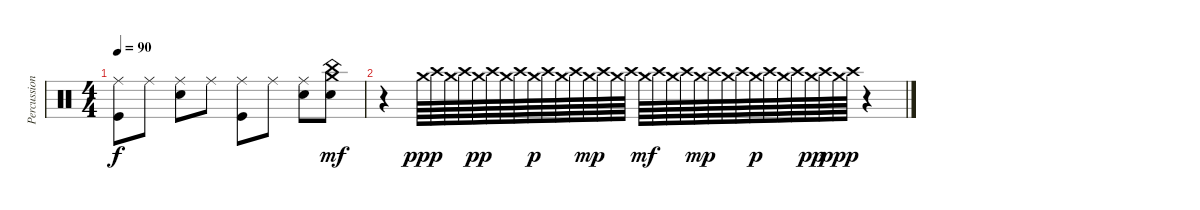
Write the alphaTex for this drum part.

\track ("Percussion (DK 0)" "Percussion") {instrument percussion}
\staff {score}
\articulation defaults
\ts (4 4)
\tempo 90
\clef neutral
\ks c
("Ride (middle)" "Kick (hit)").8{dy f} "Ride (middle)".8 ("Ride (middle)" "Electric Snare (hit)").8 "Ride (middle)".8 ("Ride (middle)" "Kick (hit)").8 "Ride (middle)".8 ("Ride (middle)" "Electric Snare (hit)").8 ("Crash medium (hit)" "Electric Snare (hit)" "China (hit)").8{dy mf} |
r.4 "Crash medium (hit)".64{dy ppp} "Crash high (hit)".64 "Crash medium (hit)".64 "Crash high (hit)".64 "Crash medium (hit)".64{dy pp} "Crash high (hit)".64 "Crash medium (hit)".64 "Crash high (hit)".64 "Crash medium (hit)".64{dy p} "Crash high (hit)".64 "Crash medium (hit)".64 "Crash high (hit)".64 "Crash medium (hit)".64{dy mp} "Crash high (hit)".64 "Crash medium (hit)".64 "Crash high (hit)".64 "Crash medium (hit)".64{dy mf} "Crash high (hit)".64 "Crash medium (hit)".64 "Crash high (hit)".64 "Crash medium (hit)".64{dy mp} "Crash high (hit)".64 "Crash medium (hit)".64 "Crash high (hit)".64 "Crash medium (hit)".64{dy p} "Crash high (hit)".64 "Crash medium (hit)".64 "Crash high (hit)".64 "Crash medium (hit)".64{dy pp} "Crash high (hit)".64 "Crash medium (hit)".64{dy ppp} "Crash high (hit)".64 r.4
